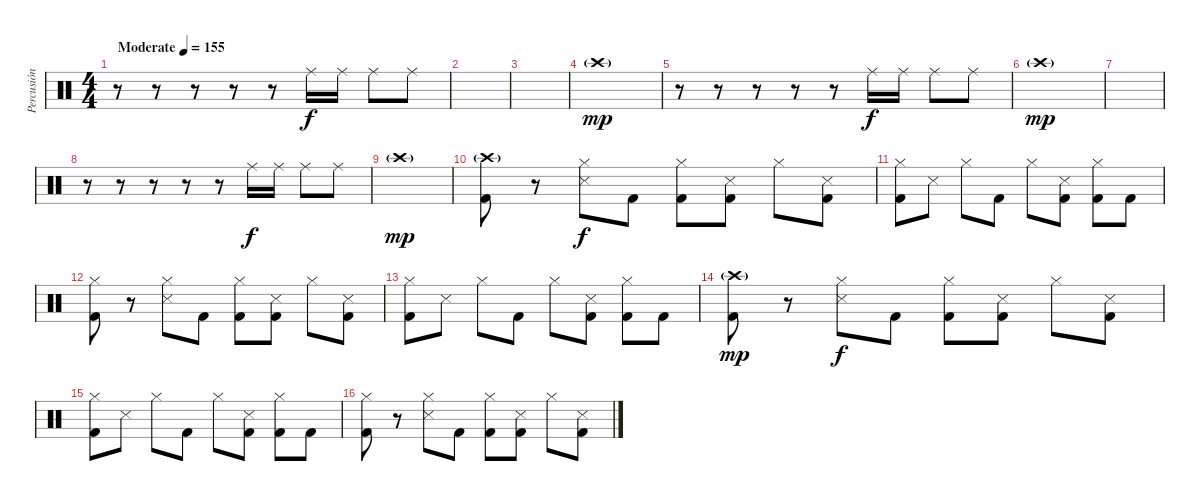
\track ("Percusión" "Percusión") {instrument percussion}
\staff {score}
\articulation defaults
\ts (4 4)
\tempo (155 "Moderate")
\clef neutral
\ks c
r.8{dy f} r.8 r.8 r.8 r.8 "Ride (middle)".16 "Ride (middle)".16 "Ride (middle)".8 "Ride (middle)".8 |
|
|
"Crash high (hit)"{g}.1{dy mp} |
r.8 r.8 r.8 r.8 r.8 "Ride (middle)".16{dy f} "Ride (middle)".16 "Ride (middle)".8 "Ride (middle)".8 |
"Crash high (hit)"{g}.1{dy mp} |
|
r.8 r.8 r.8 r.8 r.8 "Ride (middle)".16{dy f} "Ride (middle)".16 "Ride (middle)".8 "Ride (middle)".8 |
"Crash high (hit)"{g}.1{dy mp} |
("Crash high (hit)"{g} "Kick (hit) 2").8 r.8 ("Hi-Hat (closed)" "Snare (side stick) 3").8{dy f} "Kick (hit) 2".8 ("Hi-Hat (closed)" "Kick (hit) 2").8 ("Snare (side stick) 3" "Kick (hit) 2").8 "Hi-Hat (closed)".8 ("Snare (side stick) 3" "Kick (hit) 2").8 |
("Hi-Hat (closed)" "Kick (hit) 2").8 "Snare (side stick) 3".8 "Hi-Hat (closed)".8 "Kick (hit) 2".8 "Hi-Hat (closed)".8 ("Snare (side stick) 3" "Kick (hit) 2").8 ("Hi-Hat (closed)" "Kick (hit) 2").8 "Kick (hit) 2".8 |
("Hi-Hat (closed)" "Kick (hit) 2").8 r.8 ("Hi-Hat (closed)" "Snare (side stick) 3").8 "Kick (hit) 2".8 ("Hi-Hat (closed)" "Kick (hit) 2").8 ("Snare (side stick) 3" "Kick (hit) 2").8 "Hi-Hat (closed)".8 ("Snare (side stick) 3" "Kick (hit) 2").8 |
("Hi-Hat (closed)" "Kick (hit) 2").8 "Snare (side stick) 3".8 "Hi-Hat (closed)".8 "Kick (hit) 2".8 "Hi-Hat (closed)".8 ("Snare (side stick) 3" "Kick (hit) 2").8 ("Hi-Hat (closed)" "Kick (hit) 2").8 "Kick (hit) 2".8 |
("Crash high (hit)"{g} "Kick (hit) 2").8{dy mp} r.8 ("Hi-Hat (closed)" "Snare (side stick) 3").8{dy f} "Kick (hit) 2".8 ("Hi-Hat (closed)" "Kick (hit) 2").8 ("Snare (side stick) 3" "Kick (hit) 2").8 "Hi-Hat (closed)".8 ("Snare (side stick) 3" "Kick (hit) 2").8 |
("Hi-Hat (closed)" "Kick (hit) 2").8 "Snare (side stick) 3".8 "Hi-Hat (closed)".8 "Kick (hit) 2".8 "Hi-Hat (closed)".8 ("Snare (side stick) 3" "Kick (hit) 2").8 ("Hi-Hat (closed)" "Kick (hit) 2").8 "Kick (hit) 2".8 |
("Hi-Hat (closed)" "Kick (hit) 2").8 r.8 ("Hi-Hat (closed)" "Snare (side stick) 3").8 "Kick (hit) 2".8 ("Hi-Hat (closed)" "Kick (hit) 2").8 ("Snare (side stick) 3" "Kick (hit) 2").8 "Hi-Hat (closed)".8 ("Snare (side stick) 3" "Kick (hit) 2").8
